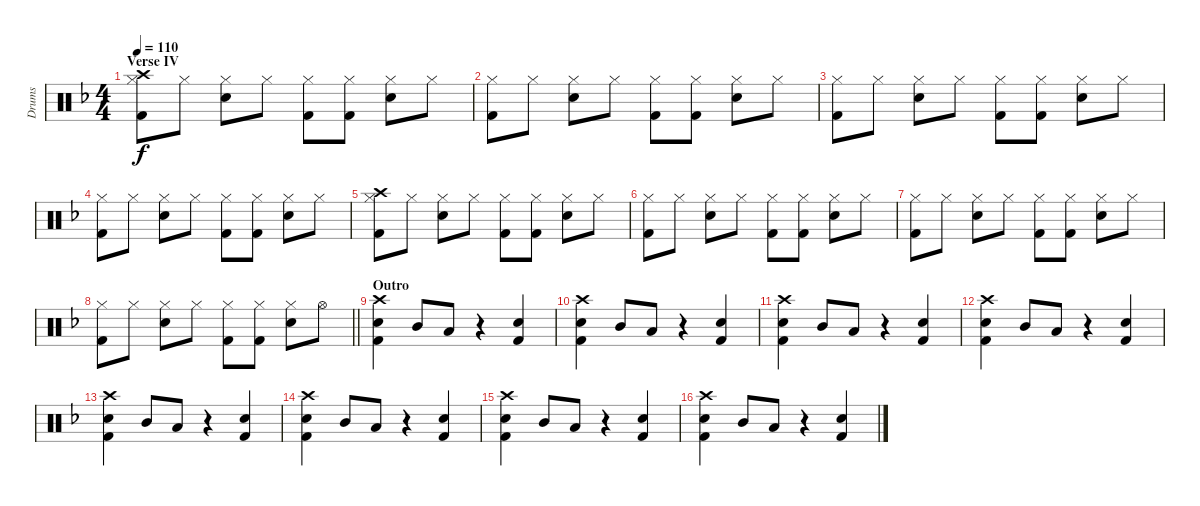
\track ("Drums" "Drums") {instrument percussion}
\staff {score}
\articulation defaults
\ts (4 4)
\section ("" "Verse IV")
\tempo 110
\clef neutral
\ks f
("Crash high (hit)" "Hi-Hat (closed)" "Kick (hit) 2").8{dy f} "Hi-Hat (closed)".8 ("Hi-Hat (closed)" "Snare (hit) 2").8 "Hi-Hat (closed)".8 ("Hi-Hat (closed)" "Kick (hit) 2").8 ("Hi-Hat (closed)" "Kick (hit) 2").8 ("Hi-Hat (closed)" "Snare (hit) 2").8 "Hi-Hat (closed)".8 |
("Hi-Hat (closed)" "Kick (hit) 2").8 "Hi-Hat (closed)".8 ("Hi-Hat (closed)" "Snare (hit) 2").8 "Hi-Hat (closed)".8 ("Hi-Hat (closed)" "Kick (hit) 2").8 ("Hi-Hat (closed)" "Kick (hit) 2").8 ("Hi-Hat (closed)" "Snare (hit) 2").8 "Hi-Hat (closed)".8 |
("Hi-Hat (closed)" "Kick (hit) 2").8 "Hi-Hat (closed)".8 ("Hi-Hat (closed)" "Snare (hit) 2").8 "Hi-Hat (closed)".8 ("Hi-Hat (closed)" "Kick (hit) 2").8 ("Hi-Hat (closed)" "Kick (hit) 2").8 ("Hi-Hat (closed)" "Snare (hit) 2").8 "Hi-Hat (closed)".8 |
("Hi-Hat (closed)" "Kick (hit) 2").8 "Hi-Hat (closed)".8 ("Hi-Hat (closed)" "Snare (hit) 2").8 "Hi-Hat (closed)".8 ("Hi-Hat (closed)" "Kick (hit) 2").8 ("Hi-Hat (closed)" "Kick (hit) 2").8 ("Hi-Hat (closed)" "Snare (hit) 2").8 "Hi-Hat (closed)".8 |
("Crash high (hit)" "Hi-Hat (closed)" "Kick (hit) 2").8 "Hi-Hat (closed)".8 ("Hi-Hat (closed)" "Snare (hit) 2").8 "Hi-Hat (closed)".8 ("Hi-Hat (closed)" "Kick (hit) 2").8 ("Hi-Hat (closed)" "Kick (hit) 2").8 ("Hi-Hat (closed)" "Snare (hit) 2").8 "Hi-Hat (closed)".8 |
("Hi-Hat (closed)" "Kick (hit) 2").8 "Hi-Hat (closed)".8 ("Hi-Hat (closed)" "Snare (hit) 2").8 "Hi-Hat (closed)".8 ("Hi-Hat (closed)" "Kick (hit) 2").8 ("Hi-Hat (closed)" "Kick (hit) 2").8 ("Hi-Hat (closed)" "Snare (hit) 2").8 "Hi-Hat (closed)".8 |
("Hi-Hat (closed)" "Kick (hit) 2").8 "Hi-Hat (closed)".8 ("Hi-Hat (closed)" "Snare (hit) 2").8 "Hi-Hat (closed)".8 ("Hi-Hat (closed)" "Kick (hit) 2").8 ("Hi-Hat (closed)" "Kick (hit) 2").8 ("Hi-Hat (closed)" "Snare (hit) 2").8 "Hi-Hat (closed)".8 |
\barLineRight lightlight
("Hi-Hat (closed)" "Kick (hit) 2").8 "Hi-Hat (closed)".8 ("Hi-Hat (closed)" "Snare (hit) 2").8 "Hi-Hat (closed)".8 ("Hi-Hat (closed)" "Kick (hit) 2").8 ("Hi-Hat (closed)" "Kick (hit) 2").8 ("Hi-Hat (closed)" "Snare (hit) 2").8 "Hi-Hat (open)".8 |
\section ("" "Outro")
("Crash high (hit)" "Snare (hit) 2" "Kick (hit) 2").4 "Mid Tom (hit)".8 "Low Tom (hit)".8 r.4 ("Snare (hit) 2" "Kick (hit) 2").4 |
("Crash high (hit)" "Snare (hit) 2" "Kick (hit) 2").4 "Mid Tom (hit)".8 "Low Tom (hit)".8 r.4 ("Snare (hit) 2" "Kick (hit) 2").4 |
("Crash high (hit)" "Snare (hit) 2" "Kick (hit) 2").4 "Mid Tom (hit)".8 "Low Tom (hit)".8 r.4 ("Snare (hit) 2" "Kick (hit) 2").4 |
("Crash high (hit)" "Snare (hit) 2" "Kick (hit) 2").4 "Mid Tom (hit)".8 "Low Tom (hit)".8 r.4 ("Snare (hit) 2" "Kick (hit) 2").4 |
("Crash high (hit)" "Snare (hit) 2" "Kick (hit) 2").4 "Mid Tom (hit)".8 "Low Tom (hit)".8 r.4 ("Snare (hit) 2" "Kick (hit) 2").4 |
("Crash high (hit)" "Snare (hit) 2" "Kick (hit) 2").4 "Mid Tom (hit)".8 "Low Tom (hit)".8 r.4 ("Snare (hit) 2" "Kick (hit) 2").4 |
("Crash high (hit)" "Snare (hit) 2" "Kick (hit) 2").4 "Mid Tom (hit)".8 "Low Tom (hit)".8 r.4 ("Snare (hit) 2" "Kick (hit) 2").4 |
("Crash high (hit)" "Snare (hit) 2" "Kick (hit) 2").4 "Mid Tom (hit)".8 "Low Tom (hit)".8 r.4 ("Snare (hit) 2" "Kick (hit) 2").4
